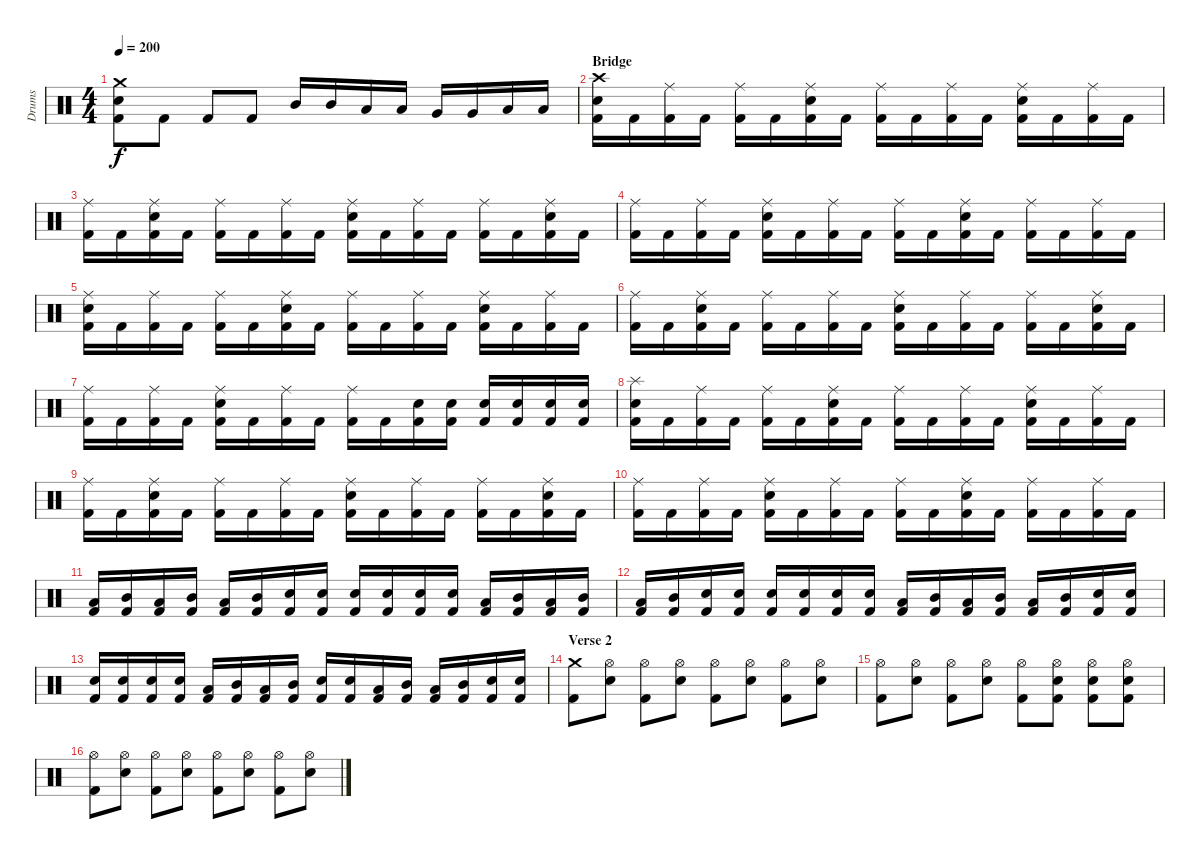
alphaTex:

\track ("Drums" "Drums") {instrument percussion}
\staff {score}
\articulation defaults
\ts (4 4)
\tempo 200
\clef neutral
\ks c
("Crash medium (hit)" "Snare (hit) 2" "Kick (hit) 2").8{dy f} "Kick (hit) 2".8 "Kick (hit) 2".8 "Kick (hit) 2".8 "Mid Tom (hit)".16 "Mid Tom (hit)".16 "Low Tom (hit)".16 "Low Tom (hit)".16 "Very Low Tom (hit)".16 "Very Low Tom (hit)".16 "Low Floor Tom (hit)".16 "Low Floor Tom (hit)".16 |
\section ("" "Bridge")
("Crash high (hit)" "Snare (hit) 2" "Kick (hit) 2").16 "Kick (hit) 2".16 ("Ride (middle)" "Kick (hit) 2").16 "Kick (hit) 2".16 ("Ride (middle)" "Kick (hit) 2").16 "Kick (hit) 2".16 ("Ride (middle)" "Snare (hit) 2" "Kick (hit) 2").16 "Kick (hit) 2".16 ("Ride (middle)" "Kick (hit) 2").16 "Kick (hit) 2".16 ("Ride (middle)" "Kick (hit) 2").16 "Kick (hit) 2".16 ("Ride (middle)" "Snare (hit) 2" "Kick (hit) 2").16 "Kick (hit) 2".16 ("Ride (middle)" "Kick (hit) 2").16 "Kick (hit) 2".16 |
("Ride (middle)" "Kick (hit) 2").16 "Kick (hit) 2".16 ("Ride (middle)" "Snare (hit) 2" "Kick (hit) 2").16 "Kick (hit) 2".16 ("Ride (middle)" "Kick (hit) 2").16 "Kick (hit) 2".16 ("Ride (middle)" "Kick (hit) 2").16 "Kick (hit) 2".16 ("Ride (middle)" "Snare (hit) 2" "Kick (hit) 2").16 "Kick (hit) 2".16 ("Ride (middle)" "Kick (hit) 2").16 "Kick (hit) 2".16 ("Ride (middle)" "Kick (hit) 2").16 "Kick (hit) 2".16 ("Ride (middle)" "Snare (hit) 2" "Kick (hit) 2").16 "Kick (hit) 2".16 |
("Ride (middle)" "Kick (hit) 2").16 "Kick (hit) 2".16 ("Ride (middle)" "Kick (hit) 2").16 "Kick (hit) 2".16 ("Ride (middle)" "Snare (hit) 2" "Kick (hit) 2").16 "Kick (hit) 2".16 ("Ride (middle)" "Kick (hit) 2").16 "Kick (hit) 2".16 ("Ride (middle)" "Kick (hit) 2").16 "Kick (hit) 2".16 ("Ride (middle)" "Snare (hit) 2" "Kick (hit) 2").16 "Kick (hit) 2".16 ("Ride (middle)" "Kick (hit) 2").16 "Kick (hit) 2".16 ("Ride (middle)" "Kick (hit) 2").16 "Kick (hit) 2".16 |
("Ride (middle)" "Snare (hit) 2" "Kick (hit) 2").16 "Kick (hit) 2".16 ("Ride (middle)" "Kick (hit) 2").16 "Kick (hit) 2".16 ("Ride (middle)" "Kick (hit) 2").16 "Kick (hit) 2".16 ("Ride (middle)" "Snare (hit) 2" "Kick (hit) 2").16 "Kick (hit) 2".16 ("Ride (middle)" "Kick (hit) 2").16 "Kick (hit) 2".16 ("Ride (middle)" "Kick (hit) 2").16 "Kick (hit) 2".16 ("Ride (middle)" "Snare (hit) 2" "Kick (hit) 2").16 "Kick (hit) 2".16 ("Ride (middle)" "Kick (hit) 2").16 "Kick (hit) 2".16 |
("Ride (middle)" "Kick (hit) 2").16 "Kick (hit) 2".16 ("Ride (middle)" "Snare (hit) 2" "Kick (hit) 2").16 "Kick (hit) 2".16 ("Ride (middle)" "Kick (hit) 2").16 "Kick (hit) 2".16 ("Ride (middle)" "Kick (hit) 2").16 "Kick (hit) 2".16 ("Ride (middle)" "Snare (hit) 2" "Kick (hit) 2").16 "Kick (hit) 2".16 ("Ride (middle)" "Kick (hit) 2").16 "Kick (hit) 2".16 ("Ride (middle)" "Kick (hit) 2").16 "Kick (hit) 2".16 ("Ride (middle)" "Snare (hit) 2" "Kick (hit) 2").16 "Kick (hit) 2".16 |
("Ride (middle)" "Kick (hit) 2").16 "Kick (hit) 2".16 ("Ride (middle)" "Kick (hit) 2").16 "Kick (hit) 2".16 ("Ride (middle)" "Snare (hit) 2" "Kick (hit) 2").16 "Kick (hit) 2".16 ("Ride (middle)" "Kick (hit) 2").16 "Kick (hit) 2".16 ("Ride (middle)" "Kick (hit) 2").16 "Kick (hit) 2".16 ("Snare (hit) 2" "Kick (hit) 2").16 ("Snare (hit) 2" "Kick (hit) 2").16 ("Snare (hit) 2" "Kick (hit) 2").16 ("Snare (hit) 2" "Kick (hit) 2").16 ("Snare (hit) 2" "Kick (hit) 2").16 ("Snare (hit) 2" "Kick (hit) 2").16 |
("Splash (hit)" "Snare (hit) 2" "Kick (hit) 2").16 "Kick (hit) 2".16 ("Ride (middle)" "Kick (hit) 2").16 "Kick (hit) 2".16 ("Ride (middle)" "Kick (hit) 2").16 "Kick (hit) 2".16 ("Ride (middle)" "Snare (hit) 2" "Kick (hit) 2").16 "Kick (hit) 2".16 ("Ride (middle)" "Kick (hit) 2").16 "Kick (hit) 2".16 ("Ride (middle)" "Kick (hit) 2").16 "Kick (hit) 2".16 ("Ride (middle)" "Snare (hit) 2" "Kick (hit) 2").16 "Kick (hit) 2".16 ("Ride (middle)" "Kick (hit) 2").16 "Kick (hit) 2".16 |
("Ride (middle)" "Kick (hit) 2").16 "Kick (hit) 2".16 ("Ride (middle)" "Snare (hit) 2" "Kick (hit) 2").16 "Kick (hit) 2".16 ("Ride (middle)" "Kick (hit) 2").16 "Kick (hit) 2".16 ("Ride (middle)" "Kick (hit) 2").16 "Kick (hit) 2".16 ("Ride (middle)" "Snare (hit) 2" "Kick (hit) 2").16 "Kick (hit) 2".16 ("Ride (middle)" "Kick (hit) 2").16 "Kick (hit) 2".16 ("Ride (middle)" "Kick (hit) 2").16 "Kick (hit) 2".16 ("Ride (middle)" "Snare (hit) 2" "Kick (hit) 2").16 "Kick (hit) 2".16 |
("Ride (middle)" "Kick (hit) 2").16 "Kick (hit) 2".16 ("Ride (middle)" "Kick (hit) 2").16 "Kick (hit) 2".16 ("Ride (middle)" "Snare (hit) 2" "Kick (hit) 2").16 "Kick (hit) 2".16 ("Ride (middle)" "Kick (hit) 2").16 "Kick (hit) 2".16 ("Ride (middle)" "Kick (hit) 2").16 "Kick (hit) 2".16 ("Ride (middle)" "Snare (hit) 2" "Kick (hit) 2").16 "Kick (hit) 2".16 ("Ride (middle)" "Kick (hit) 2").16 "Kick (hit) 2".16 ("Ride (middle)" "Kick (hit) 2").16 "Kick (hit) 2".16 |
("Low Tom (hit)" "Kick (hit) 2").16 ("Mid Tom (hit)" "Kick (hit) 2").16 ("Low Tom (hit)" "Kick (hit) 2").16 ("Mid Tom (hit)" "Kick (hit) 2").16 ("Low Tom (hit)" "Kick (hit) 2").16 ("Mid Tom (hit)" "Kick (hit) 2").16 ("Snare (hit) 2" "Kick (hit) 2").16 ("Snare (hit) 2" "Kick (hit) 2").16 ("Snare (hit) 2" "Kick (hit) 2").16 ("Snare (hit) 2" "Kick (hit) 2").16 ("Snare (hit) 2" "Kick (hit) 2").16 ("Snare (hit) 2" "Kick (hit) 2").16 ("Low Tom (hit)" "Kick (hit) 2").16 ("Mid Tom (hit)" "Kick (hit) 2").16 ("Low Tom (hit)" "Kick (hit) 2").16 ("Mid Tom (hit)" "Kick (hit) 2").16 |
("Low Tom (hit)" "Kick (hit) 2").16 ("Mid Tom (hit)" "Kick (hit) 2").16 ("Snare (hit) 2" "Kick (hit) 2").16 ("Snare (hit) 2" "Kick (hit) 2").16 ("Snare (hit) 2" "Kick (hit) 2").16 ("Snare (hit) 2" "Kick (hit) 2").16 ("Snare (hit) 2" "Kick (hit) 2").16 ("Snare (hit) 2" "Kick (hit) 2").16 ("Low Tom (hit)" "Kick (hit) 2").16 ("Mid Tom (hit)" "Kick (hit) 2").16 ("Low Tom (hit)" "Kick (hit) 2").16 ("Mid Tom (hit)" "Kick (hit) 2").16 ("Low Tom (hit)" "Kick (hit) 2").16 ("Mid Tom (hit)" "Kick (hit) 2").16 ("Snare (hit) 2" "Kick (hit) 2").16 ("Snare (hit) 2" "Kick (hit) 2").16 |
("Snare (hit) 2" "Kick (hit) 2").16 ("Snare (hit) 2" "Kick (hit) 2").16 ("Snare (hit) 2" "Kick (hit) 2").16 ("Snare (hit) 2" "Kick (hit) 2").16 ("Low Tom (hit)" "Kick (hit) 2").16 ("Mid Tom (hit)" "Kick (hit) 2").16 ("Low Tom (hit)" "Kick (hit) 2").16 ("Mid Tom (hit)" "Kick (hit) 2").16 ("Snare (hit) 2" "Kick (hit) 2").16 ("Snare (hit) 2" "Kick (hit) 2").16 ("Low Tom (hit)" "Kick (hit) 2").16 ("Mid Tom (hit)" "Kick (hit) 2").16 ("Low Tom (hit)" "Kick (hit) 2").16 ("Mid Tom (hit)" "Kick (hit) 2").16 ("Snare (hit) 2" "Kick (hit) 2").16 ("Snare (hit) 2" "Kick (hit) 2").16 |
\section ("" "Verse 2")
("Crash medium (hit)" "Kick (hit) 2").8 ("Hi-Hat (open)" "Snare (hit) 2").8 ("Hi-Hat (open)" "Kick (hit) 2").8 ("Hi-Hat (open)" "Snare (hit) 2").8 ("Hi-Hat (open)" "Kick (hit) 2").8 ("Hi-Hat (open)" "Snare (hit) 2").8 ("Hi-Hat (open)" "Kick (hit) 2").8 ("Hi-Hat (open)" "Snare (hit) 2").8 |
("Hi-Hat (open)" "Kick (hit) 2").8 ("Hi-Hat (open)" "Snare (hit) 2").8 ("Hi-Hat (open)" "Kick (hit) 2").8 ("Hi-Hat (open)" "Snare (hit) 2").8 ("Hi-Hat (open)" "Kick (hit) 2").8 ("Hi-Hat (open)" "Snare (hit) 2" "Kick (hit) 2").8 ("Hi-Hat (open)" "Snare (hit) 2" "Kick (hit) 2").8 ("Hi-Hat (open)" "Snare (hit) 2" "Kick (hit) 2").8 |
("Hi-Hat (open)" "Kick (hit) 2").8 ("Hi-Hat (open)" "Snare (hit) 2").8 ("Hi-Hat (open)" "Kick (hit) 2").8 ("Hi-Hat (open)" "Snare (hit) 2").8 ("Hi-Hat (open)" "Kick (hit) 2").8 ("Hi-Hat (open)" "Snare (hit) 2").8 ("Hi-Hat (open)" "Kick (hit) 2").8 ("Hi-Hat (open)" "Snare (hit) 2").8
